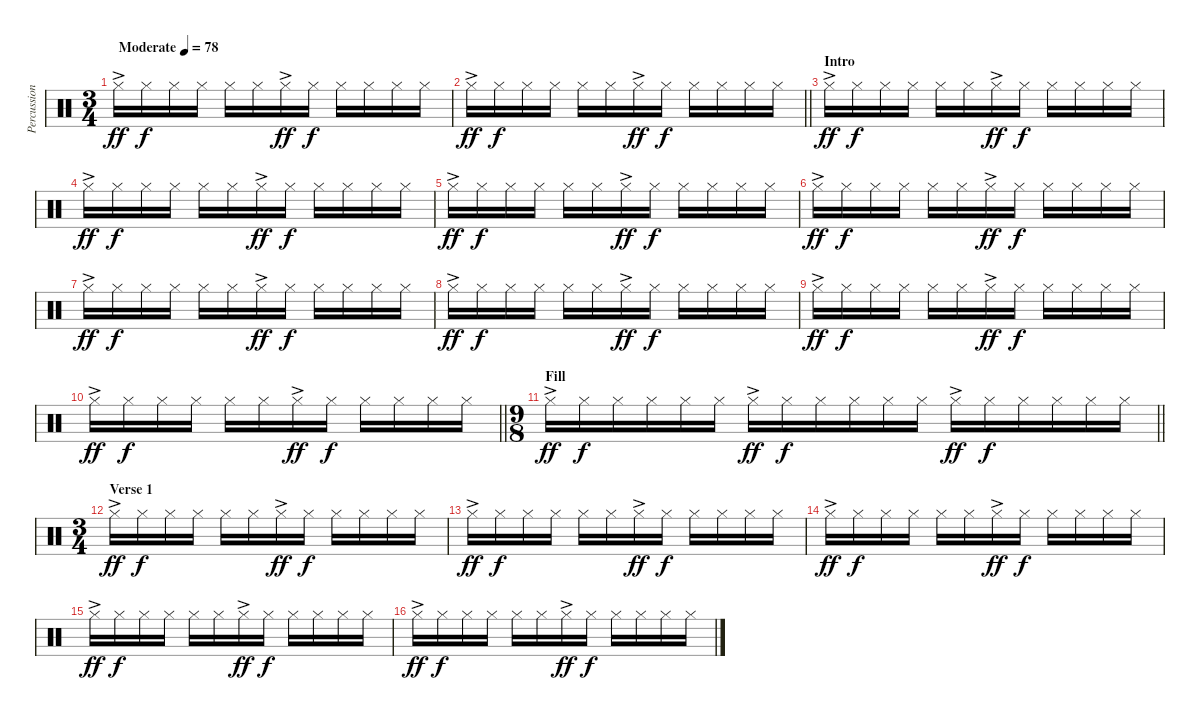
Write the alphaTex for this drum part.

\track ("Percussion" "Percussion") {instrument percussion}
\staff {score}
\articulation defaults
\ts (3 4)
\tempo (78 "Moderate")
\clef neutral
\ks c "Hi-Hat (closed)"{ac}.16{dy ff volume 4} "Hi-Hat (closed)".16{dy f} "Hi-Hat (closed)".16 "Hi-Hat (closed)".16 "Hi-Hat (closed)".16 "Hi-Hat (closed)".16 "Hi-Hat (closed)"{ac}.16{dy ff} "Hi-Hat (closed)".16{dy f} "Hi-Hat (closed)".16 "Hi-Hat (closed)".16 "Hi-Hat (closed)".16 "Hi-Hat (closed)".16
|
\barLineRight lightlight "Hi-Hat (closed)"{ac}.16{dy ff} "Hi-Hat (closed)".16{dy f} "Hi-Hat (closed)".16 "Hi-Hat (closed)".16 "Hi-Hat (closed)".16 "Hi-Hat (closed)".16 "Hi-Hat (closed)"{ac}.16{dy ff} "Hi-Hat (closed)".16{dy f} "Hi-Hat (closed)".16 "Hi-Hat (closed)".16 "Hi-Hat (closed)".16 "Hi-Hat (closed)".16
|
\section ("" "Intro")
"Hi-Hat (closed)"{ac}.16{dy ff} "Hi-Hat (closed)".16{dy f} "Hi-Hat (closed)".16 "Hi-Hat (closed)".16 "Hi-Hat (closed)".16 "Hi-Hat (closed)".16 "Hi-Hat (closed)"{ac}.16{dy ff} "Hi-Hat (closed)".16{dy f} "Hi-Hat (closed)".16 "Hi-Hat (closed)".16 "Hi-Hat (closed)".16 "Hi-Hat (closed)".16 |
"Hi-Hat (closed)"{ac}.16{dy ff} "Hi-Hat (closed)".16{dy f} "Hi-Hat (closed)".16 "Hi-Hat (closed)".16 "Hi-Hat (closed)".16 "Hi-Hat (closed)".16 "Hi-Hat (closed)"{ac}.16{dy ff} "Hi-Hat (closed)".16{dy f} "Hi-Hat (closed)".16 "Hi-Hat (closed)".16 "Hi-Hat (closed)".16 "Hi-Hat (closed)".16 |
"Hi-Hat (closed)"{ac}.16{dy ff} "Hi-Hat (closed)".16{dy f} "Hi-Hat (closed)".16 "Hi-Hat (closed)".16 "Hi-Hat (closed)".16 "Hi-Hat (closed)".16 "Hi-Hat (closed)"{ac}.16{dy ff} "Hi-Hat (closed)".16{dy f} "Hi-Hat (closed)".16 "Hi-Hat (closed)".16 "Hi-Hat (closed)".16 "Hi-Hat (closed)".16 |
"Hi-Hat (closed)"{ac}.16{dy ff} "Hi-Hat (closed)".16{dy f} "Hi-Hat (closed)".16 "Hi-Hat (closed)".16 "Hi-Hat (closed)".16 "Hi-Hat (closed)".16 "Hi-Hat (closed)"{ac}.16{dy ff} "Hi-Hat (closed)".16{dy f} "Hi-Hat (closed)".16 "Hi-Hat (closed)".16 "Hi-Hat (closed)".16 "Hi-Hat (closed)".16 |
"Hi-Hat (closed)"{ac}.16{dy ff} "Hi-Hat (closed)".16{dy f} "Hi-Hat (closed)".16 "Hi-Hat (closed)".16 "Hi-Hat (closed)".16 "Hi-Hat (closed)".16 "Hi-Hat (closed)"{ac}.16{dy ff} "Hi-Hat (closed)".16{dy f} "Hi-Hat (closed)".16 "Hi-Hat (closed)".16 "Hi-Hat (closed)".16 "Hi-Hat (closed)".16 |
"Hi-Hat (closed)"{ac}.16{dy ff} "Hi-Hat (closed)".16{dy f} "Hi-Hat (closed)".16 "Hi-Hat (closed)".16 "Hi-Hat (closed)".16 "Hi-Hat (closed)".16 "Hi-Hat (closed)"{ac}.16{dy ff} "Hi-Hat (closed)".16{dy f} "Hi-Hat (closed)".16 "Hi-Hat (closed)".16 "Hi-Hat (closed)".16 "Hi-Hat (closed)".16 |
"Hi-Hat (closed)"{ac}.16{dy ff} "Hi-Hat (closed)".16{dy f} "Hi-Hat (closed)".16 "Hi-Hat (closed)".16 "Hi-Hat (closed)".16 "Hi-Hat (closed)".16 "Hi-Hat (closed)"{ac}.16{dy ff} "Hi-Hat (closed)".16{dy f} "Hi-Hat (closed)".16 "Hi-Hat (closed)".16 "Hi-Hat (closed)".16 "Hi-Hat (closed)".16 |
\barLineRight lightlight "Hi-Hat (closed)"{ac}.16{dy ff} "Hi-Hat (closed)".16{dy f} "Hi-Hat (closed)".16 "Hi-Hat (closed)".16 "Hi-Hat (closed)".16 "Hi-Hat (closed)".16 "Hi-Hat (closed)"{ac}.16{dy ff} "Hi-Hat (closed)".16{dy f} "Hi-Hat (closed)".16 "Hi-Hat (closed)".16 "Hi-Hat (closed)".16 "Hi-Hat (closed)".16
|
\ts (9 8)
\section ("" "Fill")
\barLineRight lightlight "Hi-Hat (closed)"{ac}.16{dy ff} "Hi-Hat (closed)".16{dy f} "Hi-Hat (closed)".16 "Hi-Hat (closed)".16 "Hi-Hat (closed)".16 "Hi-Hat (closed)".16 "Hi-Hat (closed)"{ac}.16{dy ff} "Hi-Hat (closed)".16{dy f} "Hi-Hat (closed)".16 "Hi-Hat (closed)".16 "Hi-Hat (closed)".16 "Hi-Hat (closed)".16 "Hi-Hat (closed)"{ac}.16{dy ff} "Hi-Hat (closed)".16{dy f} "Hi-Hat (closed)".16 "Hi-Hat (closed)".16 "Hi-Hat (closed)".16 "Hi-Hat (closed)".16
|
\ts (3 4)
\section ("" "Verse 1")
"Hi-Hat (closed)"{ac}.16{dy ff} "Hi-Hat (closed)".16{dy f} "Hi-Hat (closed)".16 "Hi-Hat (closed)".16 "Hi-Hat (closed)".16 "Hi-Hat (closed)".16 "Hi-Hat (closed)"{ac}.16{dy ff} "Hi-Hat (closed)".16{dy f} "Hi-Hat (closed)".16 "Hi-Hat (closed)".16 "Hi-Hat (closed)".16 "Hi-Hat (closed)".16 |
"Hi-Hat (closed)"{ac}.16{dy ff} "Hi-Hat (closed)".16{dy f} "Hi-Hat (closed)".16 "Hi-Hat (closed)".16 "Hi-Hat (closed)".16 "Hi-Hat (closed)".16 "Hi-Hat (closed)"{ac}.16{dy ff} "Hi-Hat (closed)".16{dy f} "Hi-Hat (closed)".16 "Hi-Hat (closed)".16 "Hi-Hat (closed)".16 "Hi-Hat (closed)".16 |
"Hi-Hat (closed)"{ac}.16{dy ff} "Hi-Hat (closed)".16{dy f} "Hi-Hat (closed)".16 "Hi-Hat (closed)".16 "Hi-Hat (closed)".16 "Hi-Hat (closed)".16 "Hi-Hat (closed)"{ac}.16{dy ff} "Hi-Hat (closed)".16{dy f} "Hi-Hat (closed)".16 "Hi-Hat (closed)".16 "Hi-Hat (closed)".16 "Hi-Hat (closed)".16 |
"Hi-Hat (closed)"{ac}.16{dy ff} "Hi-Hat (closed)".16{dy f} "Hi-Hat (closed)".16 "Hi-Hat (closed)".16 "Hi-Hat (closed)".16 "Hi-Hat (closed)".16 "Hi-Hat (closed)"{ac}.16{dy ff} "Hi-Hat (closed)".16{dy f} "Hi-Hat (closed)".16 "Hi-Hat (closed)".16 "Hi-Hat (closed)".16 "Hi-Hat (closed)".16 |
"Hi-Hat (closed)"{ac}.16{dy ff} "Hi-Hat (closed)".16{dy f} "Hi-Hat (closed)".16 "Hi-Hat (closed)".16 "Hi-Hat (closed)".16 "Hi-Hat (closed)".16 "Hi-Hat (closed)"{ac}.16{dy ff} "Hi-Hat (closed)".16{dy f} "Hi-Hat (closed)".16 "Hi-Hat (closed)".16 "Hi-Hat (closed)".16 "Hi-Hat (closed)".16
